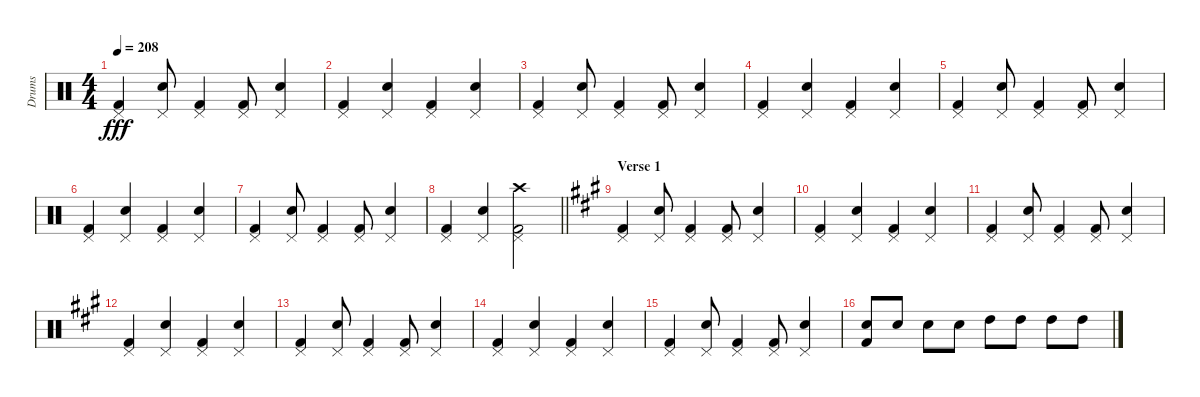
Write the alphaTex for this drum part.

\track ("Drums" "Drums") {instrument percussion}
\staff {score}
\articulation defaults
\ts (4 4)
\tempo 208
\clef neutral
\ks c
("Pedal Hi-Hat (hit)" "Kick (hit) 2").4{dy fff} ("Pedal Hi-Hat (hit)" "Snare (hit) 2").8 ("Pedal Hi-Hat (hit)" "Kick (hit) 2").4 ("Pedal Hi-Hat (hit)" "Kick (hit) 2").8 ("Pedal Hi-Hat (hit)" "Snare (hit) 2").4 |
("Pedal Hi-Hat (hit)" "Kick (hit) 2").4 ("Pedal Hi-Hat (hit)" "Snare (hit) 2").4 ("Pedal Hi-Hat (hit)" "Kick (hit) 2").4 ("Pedal Hi-Hat (hit)" "Snare (hit) 2").4 |
("Pedal Hi-Hat (hit)" "Kick (hit) 2").4 ("Pedal Hi-Hat (hit)" "Snare (hit) 2").8 ("Pedal Hi-Hat (hit)" "Kick (hit) 2").4 ("Pedal Hi-Hat (hit)" "Kick (hit) 2").8 ("Pedal Hi-Hat (hit)" "Snare (hit) 2").4 |
("Pedal Hi-Hat (hit)" "Kick (hit) 2").4 ("Pedal Hi-Hat (hit)" "Snare (hit) 2").4 ("Pedal Hi-Hat (hit)" "Kick (hit) 2").4 ("Pedal Hi-Hat (hit)" "Snare (hit) 2").4 |
("Pedal Hi-Hat (hit)" "Kick (hit) 2").4 ("Pedal Hi-Hat (hit)" "Snare (hit) 2").8 ("Pedal Hi-Hat (hit)" "Kick (hit) 2").4 ("Pedal Hi-Hat (hit)" "Kick (hit) 2").8 ("Pedal Hi-Hat (hit)" "Snare (hit) 2").4 |
("Pedal Hi-Hat (hit)" "Kick (hit) 2").4 ("Pedal Hi-Hat (hit)" "Snare (hit) 2").4 ("Pedal Hi-Hat (hit)" "Kick (hit) 2").4 ("Pedal Hi-Hat (hit)" "Snare (hit) 2").4 |
("Pedal Hi-Hat (hit)" "Kick (hit) 2").4 ("Pedal Hi-Hat (hit)" "Snare (hit) 2").8 ("Pedal Hi-Hat (hit)" "Kick (hit) 2").4 ("Pedal Hi-Hat (hit)" "Kick (hit) 2").8 ("Pedal Hi-Hat (hit)" "Snare (hit) 2").4 |
\barLineRight lightlight
("Pedal Hi-Hat (hit)" "Kick (hit) 2").4 ("Pedal Hi-Hat (hit)" "Snare (hit) 2").4 ("Crash high (hit)" "Pedal Hi-Hat (hit)" "Kick (hit) 2").2 |
\section ("" "Verse 1")
\ks a
("Pedal Hi-Hat (hit)" "Kick (hit) 2").4 ("Pedal Hi-Hat (hit)" "Snare (hit) 2").8 ("Pedal Hi-Hat (hit)" "Kick (hit) 2").4 ("Pedal Hi-Hat (hit)" "Kick (hit) 2").8 ("Pedal Hi-Hat (hit)" "Snare (hit) 2").4 |
("Pedal Hi-Hat (hit)" "Kick (hit) 2").4 ("Pedal Hi-Hat (hit)" "Snare (hit) 2").4 ("Pedal Hi-Hat (hit)" "Kick (hit) 2").4 ("Pedal Hi-Hat (hit)" "Snare (hit) 2").4 |
("Pedal Hi-Hat (hit)" "Kick (hit) 2").4 ("Pedal Hi-Hat (hit)" "Snare (hit) 2").8 ("Pedal Hi-Hat (hit)" "Kick (hit) 2").4 ("Pedal Hi-Hat (hit)" "Kick (hit) 2").8 ("Pedal Hi-Hat (hit)" "Snare (hit) 2").4 |
("Pedal Hi-Hat (hit)" "Kick (hit) 2").4 ("Pedal Hi-Hat (hit)" "Snare (hit) 2").4 ("Pedal Hi-Hat (hit)" "Kick (hit) 2").4 ("Pedal Hi-Hat (hit)" "Snare (hit) 2").4 |
("Pedal Hi-Hat (hit)" "Kick (hit) 2").4 ("Pedal Hi-Hat (hit)" "Snare (hit) 2").8 ("Pedal Hi-Hat (hit)" "Kick (hit) 2").4 ("Pedal Hi-Hat (hit)" "Kick (hit) 2").8 ("Pedal Hi-Hat (hit)" "Snare (hit) 2").4 |
("Pedal Hi-Hat (hit)" "Kick (hit) 2").4 ("Pedal Hi-Hat (hit)" "Snare (hit) 2").4 ("Pedal Hi-Hat (hit)" "Kick (hit) 2").4 ("Pedal Hi-Hat (hit)" "Snare (hit) 2").4 |
("Pedal Hi-Hat (hit)" "Kick (hit) 2").4 ("Pedal Hi-Hat (hit)" "Snare (hit) 2").8 ("Pedal Hi-Hat (hit)" "Kick (hit) 2").4 ("Pedal Hi-Hat (hit)" "Kick (hit) 2").8 ("Pedal Hi-Hat (hit)" "Snare (hit) 2").4 |
("Snare (hit) 2" "Kick (hit) 2").8 "Snare (hit) 2".8 "Snare (hit) 2".8 "Snare (hit) 2".8 "High Tom (hit)".8 "High Tom (hit)".8 "High Tom (hit)".8 "High Tom (hit)".8
